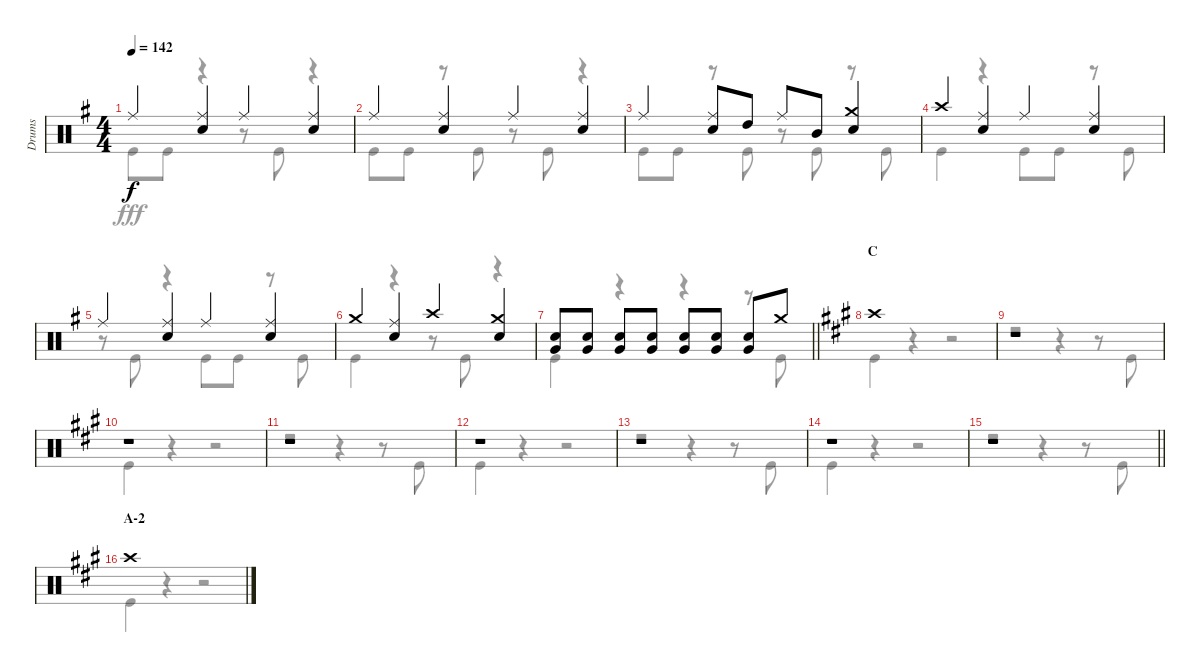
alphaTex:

\track ("Drums" "Drums") {instrument percussion}
\staff {score}
\articulation defaults
\voice
\ts (4 4)
\tempo 142
\clef neutral
\ks g "Ride (middle)".4{dy f}
("Ride (middle)" "Snare (hit) 2").4 "Ride (middle)".4 ("Ride (middle)" "Snare (hit) 2").4 |
"Ride (middle)".4 ("Ride (middle)" "Snare (hit) 2").4 "Ride (middle)".4 ("Ride (middle)" "Snare (hit) 2").4 |
"Ride (middle)".4 ("Ride (middle)" "Snare (hit) 2").8 "High Tom (hit)".8 "Ride (middle)".8 "Mid Tom (hit)".8 ("Crash medium (hit)" "Snare (hit) 2").4 |
"Crash high (hit)".4 ("Ride (middle)" "Snare (hit) 2").4 "Ride (middle)".4 ("Ride (middle)" "Snare (hit) 2").4 |
"Ride (middle)".4 ("Ride (middle)" "Snare (hit) 2").4 "Ride (middle)".4 ("Ride (middle)" "Snare (hit) 2").4 |
"Crash medium (hit)".4 ("Ride (middle)" "Snare (hit) 2").4 "Crash high (hit)".4 ("Crash medium (hit)" "Snare (hit) 2").4 |
\barLineRight lightlight
("Snare (hit) 2" "Very Low Tom (hit)").8 ("Snare (hit) 2" "Very Low Tom (hit)").8 ("Snare (hit) 2" "Very Low Tom (hit)").8 ("Snare (hit) 2" "Very Low Tom (hit)").8 ("Snare (hit) 2" "Very Low Tom (hit)").8 ("Snare (hit) 2" "Very Low Tom (hit)").8 ("Snare (hit) 2" "Very Low Tom (hit)").8 "Crash medium (hit)".8 |
\section ("" "C")
\ks a "Crash high (hit)".1
|
r.1 |
r.1 |
r.1 |
r.1 |
r.1 |
r.1 |
\barLineRight lightlight
r.1 |
\section ("" "A-2")
"Crash high (hit)".1
\voice
\clef neutral
\ottava regular
\simile none
\ks g "Kick (hit)".8{dy fff} "Kick (hit)".8
r.4 r.8 "Kick (hit)".8 r.4 |
"Kick (hit)".8 "Kick (hit)".8 r.8 "Kick (hit)".8 r.8 "Kick (hit)".8 r.4 |
"Kick (hit)".8 "Kick (hit)".8 r.8 "Kick (hit)".8 r.8 "Kick (hit)".8 r.8 "Kick (hit)".8 |
"Kick (hit)".4 r.4 "Kick (hit)".8 "Kick (hit)".8 r.8 "Kick (hit)".8 |
r.8 "Kick (hit)".8 r.4 "Kick (hit)".8 "Kick (hit)".8 r.8 "Kick (hit)".8 |
"Kick (hit)".4 r.4 r.8 "Kick (hit)".8 r.4 |
\barLineRight lightlight "Kick (hit)".4
r.4 r.4 r.8 "Kick (hit)".8 |
\ks a "Kick (hit)".4
r.4 r.2 |
r.2 r.4 r.8 "Kick (hit)".8 |
"Kick (hit)".4 r.4 r.2 |
r.2 r.4 r.8 "Kick (hit)".8 |
"Kick (hit)".4 r.4 r.2 |
r.2 r.4 r.8 "Kick (hit)".8 |
"Kick (hit)".4 r.4 r.2 |
\barLineRight lightlight
r.2 r.4 r.8 "Kick (hit)".8 |
"Kick (hit)".4 r.4 r.2
